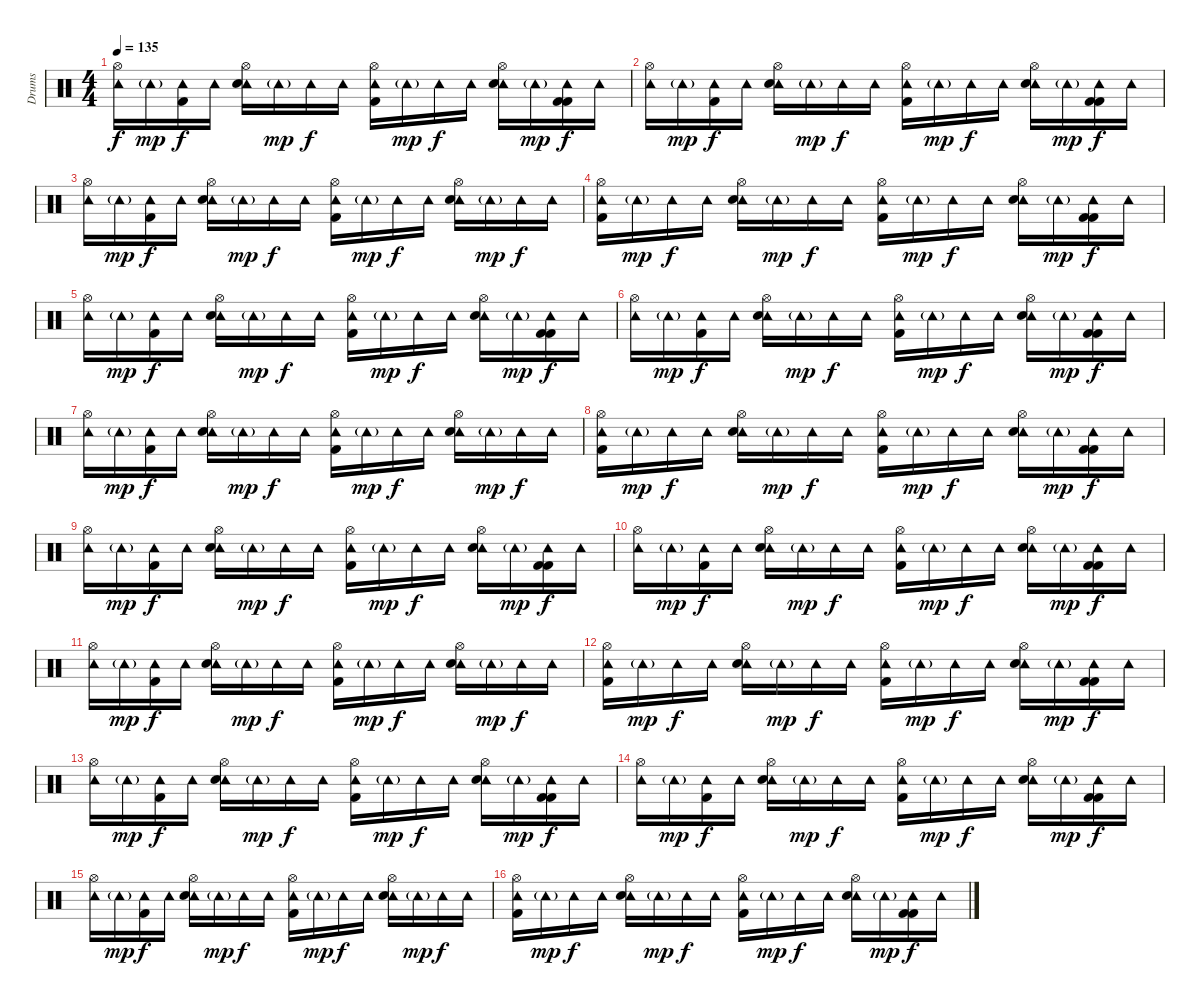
\track ("Drums" "Drums") {instrument percussion}
\staff {score}
\articulation defaults
\ts (4 4)
\tempo 135
\clef neutral
\ks c
("Hi-Hat (open)" "Tambourine (hit)").16{dy f} "Tambourine (hit)"{g}.16{dy mp} ("Tambourine (hit)" "Kick (hit) 2").16{dy f} "Tambourine (hit)".16 ("Hi-Hat (open)" "Tambourine (hit)" "Electric Snare (hit)").16 "Tambourine (hit)"{g}.16{dy mp} "Tambourine (hit)".16{dy f} "Tambourine (hit)".16 ("Hi-Hat (open)" "Tambourine (hit)" "Kick (hit) 2").16 "Tambourine (hit)"{g}.16{dy mp} "Tambourine (hit)".16{dy f} "Tambourine (hit)".16 ("Hi-Hat (open)" "Tambourine (hit)" "Electric Snare (hit)").16 "Tambourine (hit)"{g}.16{dy mp} ("Tambourine (hit)" "Kick (hit) 2" "Kick (hit) 2").16{dy f} "Tambourine (hit)".16 |
("Hi-Hat (open)" "Tambourine (hit)").16 "Tambourine (hit)"{g}.16{dy mp} ("Tambourine (hit)" "Kick (hit) 2").16{dy f} "Tambourine (hit)".16 ("Hi-Hat (open)" "Tambourine (hit)" "Electric Snare (hit)").16 "Tambourine (hit)"{g}.16{dy mp} "Tambourine (hit)".16{dy f} "Tambourine (hit)".16 ("Hi-Hat (open)" "Tambourine (hit)" "Kick (hit) 2").16 "Tambourine (hit)"{g}.16{dy mp} "Tambourine (hit)".16{dy f} "Tambourine (hit)".16 ("Hi-Hat (open)" "Tambourine (hit)" "Electric Snare (hit)").16 "Tambourine (hit)"{g}.16{dy mp} ("Tambourine (hit)" "Kick (hit) 2" "Kick (hit) 2").16{dy f} "Tambourine (hit)".16 |
("Hi-Hat (open)" "Tambourine (hit)").16 "Tambourine (hit)"{g}.16{dy mp} ("Tambourine (hit)" "Kick (hit) 2").16{dy f} "Tambourine (hit)".16 ("Hi-Hat (open)" "Tambourine (hit)" "Electric Snare (hit)").16 "Tambourine (hit)"{g}.16{dy mp} "Tambourine (hit)".16{dy f} "Tambourine (hit)".16 ("Hi-Hat (open)" "Tambourine (hit)" "Kick (hit) 2").16 "Tambourine (hit)"{g}.16{dy mp} "Tambourine (hit)".16{dy f} "Tambourine (hit)".16 ("Hi-Hat (open)" "Tambourine (hit)" "Electric Snare (hit)").16 "Tambourine (hit)"{g}.16{dy mp} "Tambourine (hit)".16{dy f} "Tambourine (hit)".16 |
("Hi-Hat (open)" "Tambourine (hit)" "Kick (hit) 2").16 "Tambourine (hit)"{g}.16{dy mp} "Tambourine (hit)".16{dy f} "Tambourine (hit)".16 ("Hi-Hat (open)" "Tambourine (hit)" "Electric Snare (hit)").16 "Tambourine (hit)"{g}.16{dy mp} "Tambourine (hit)".16{dy f} "Tambourine (hit)".16 ("Hi-Hat (open)" "Tambourine (hit)" "Kick (hit) 2").16 "Tambourine (hit)"{g}.16{dy mp} "Tambourine (hit)".16{dy f} "Tambourine (hit)".16 ("Hi-Hat (open)" "Tambourine (hit)" "Electric Snare (hit)").16 "Tambourine (hit)"{g}.16{dy mp} ("Tambourine (hit)" "Kick (hit) 2" "Kick (hit) 2").16{dy f} "Tambourine (hit)".16 |
("Hi-Hat (open)" "Tambourine (hit)").16 "Tambourine (hit)"{g}.16{dy mp} ("Tambourine (hit)" "Kick (hit) 2").16{dy f} "Tambourine (hit)".16 ("Hi-Hat (open)" "Tambourine (hit)" "Electric Snare (hit)").16 "Tambourine (hit)"{g}.16{dy mp} "Tambourine (hit)".16{dy f} "Tambourine (hit)".16 ("Hi-Hat (open)" "Tambourine (hit)" "Kick (hit) 2").16 "Tambourine (hit)"{g}.16{dy mp} "Tambourine (hit)".16{dy f} "Tambourine (hit)".16 ("Hi-Hat (open)" "Tambourine (hit)" "Electric Snare (hit)").16 "Tambourine (hit)"{g}.16{dy mp} ("Tambourine (hit)" "Kick (hit) 2" "Kick (hit) 2").16{dy f} "Tambourine (hit)".16 |
("Hi-Hat (open)" "Tambourine (hit)").16 "Tambourine (hit)"{g}.16{dy mp} ("Tambourine (hit)" "Kick (hit) 2").16{dy f} "Tambourine (hit)".16 ("Hi-Hat (open)" "Tambourine (hit)" "Electric Snare (hit)").16 "Tambourine (hit)"{g}.16{dy mp} "Tambourine (hit)".16{dy f} "Tambourine (hit)".16 ("Hi-Hat (open)" "Tambourine (hit)" "Kick (hit) 2").16 "Tambourine (hit)"{g}.16{dy mp} "Tambourine (hit)".16{dy f} "Tambourine (hit)".16 ("Hi-Hat (open)" "Tambourine (hit)" "Electric Snare (hit)").16 "Tambourine (hit)"{g}.16{dy mp} ("Tambourine (hit)" "Kick (hit) 2" "Kick (hit) 2").16{dy f} "Tambourine (hit)".16 |
("Hi-Hat (open)" "Tambourine (hit)").16 "Tambourine (hit)"{g}.16{dy mp} ("Tambourine (hit)" "Kick (hit) 2").16{dy f} "Tambourine (hit)".16 ("Hi-Hat (open)" "Tambourine (hit)" "Electric Snare (hit)").16 "Tambourine (hit)"{g}.16{dy mp} "Tambourine (hit)".16{dy f} "Tambourine (hit)".16 ("Hi-Hat (open)" "Tambourine (hit)" "Kick (hit) 2").16 "Tambourine (hit)"{g}.16{dy mp} "Tambourine (hit)".16{dy f} "Tambourine (hit)".16 ("Hi-Hat (open)" "Tambourine (hit)" "Electric Snare (hit)").16 "Tambourine (hit)"{g}.16{dy mp} "Tambourine (hit)".16{dy f} "Tambourine (hit)".16 |
("Hi-Hat (open)" "Tambourine (hit)" "Kick (hit) 2").16 "Tambourine (hit)"{g}.16{dy mp} "Tambourine (hit)".16{dy f} "Tambourine (hit)".16 ("Hi-Hat (open)" "Tambourine (hit)" "Electric Snare (hit)").16 "Tambourine (hit)"{g}.16{dy mp} "Tambourine (hit)".16{dy f} "Tambourine (hit)".16 ("Hi-Hat (open)" "Tambourine (hit)" "Kick (hit) 2").16 "Tambourine (hit)"{g}.16{dy mp} "Tambourine (hit)".16{dy f} "Tambourine (hit)".16 ("Hi-Hat (open)" "Tambourine (hit)" "Electric Snare (hit)").16 "Tambourine (hit)"{g}.16{dy mp} ("Tambourine (hit)" "Kick (hit) 2" "Kick (hit) 2").16{dy f} "Tambourine (hit)".16 |
("Hi-Hat (open)" "Tambourine (hit)").16 "Tambourine (hit)"{g}.16{dy mp} ("Tambourine (hit)" "Kick (hit) 2").16{dy f} "Tambourine (hit)".16 ("Hi-Hat (open)" "Tambourine (hit)" "Electric Snare (hit)").16 "Tambourine (hit)"{g}.16{dy mp} "Tambourine (hit)".16{dy f} "Tambourine (hit)".16 ("Hi-Hat (open)" "Tambourine (hit)" "Kick (hit) 2").16 "Tambourine (hit)"{g}.16{dy mp} "Tambourine (hit)".16{dy f} "Tambourine (hit)".16 ("Hi-Hat (open)" "Tambourine (hit)" "Electric Snare (hit)").16 "Tambourine (hit)"{g}.16{dy mp} ("Tambourine (hit)" "Kick (hit) 2" "Kick (hit) 2").16{dy f} "Tambourine (hit)".16 |
("Hi-Hat (open)" "Tambourine (hit)").16 "Tambourine (hit)"{g}.16{dy mp} ("Tambourine (hit)" "Kick (hit) 2").16{dy f} "Tambourine (hit)".16 ("Hi-Hat (open)" "Tambourine (hit)" "Electric Snare (hit)").16 "Tambourine (hit)"{g}.16{dy mp} "Tambourine (hit)".16{dy f} "Tambourine (hit)".16 ("Hi-Hat (open)" "Tambourine (hit)" "Kick (hit) 2").16 "Tambourine (hit)"{g}.16{dy mp} "Tambourine (hit)".16{dy f} "Tambourine (hit)".16 ("Hi-Hat (open)" "Tambourine (hit)" "Electric Snare (hit)").16 "Tambourine (hit)"{g}.16{dy mp} ("Tambourine (hit)" "Kick (hit) 2" "Kick (hit) 2").16{dy f} "Tambourine (hit)".16 |
("Hi-Hat (open)" "Tambourine (hit)").16 "Tambourine (hit)"{g}.16{dy mp} ("Tambourine (hit)" "Kick (hit) 2").16{dy f} "Tambourine (hit)".16 ("Hi-Hat (open)" "Tambourine (hit)" "Electric Snare (hit)").16 "Tambourine (hit)"{g}.16{dy mp} "Tambourine (hit)".16{dy f} "Tambourine (hit)".16 ("Hi-Hat (open)" "Tambourine (hit)" "Kick (hit) 2").16 "Tambourine (hit)"{g}.16{dy mp} "Tambourine (hit)".16{dy f} "Tambourine (hit)".16 ("Hi-Hat (open)" "Tambourine (hit)" "Electric Snare (hit)").16 "Tambourine (hit)"{g}.16{dy mp} "Tambourine (hit)".16{dy f} "Tambourine (hit)".16 |
("Hi-Hat (open)" "Tambourine (hit)" "Kick (hit) 2").16 "Tambourine (hit)"{g}.16{dy mp} "Tambourine (hit)".16{dy f} "Tambourine (hit)".16 ("Hi-Hat (open)" "Tambourine (hit)" "Electric Snare (hit)").16 "Tambourine (hit)"{g}.16{dy mp} "Tambourine (hit)".16{dy f} "Tambourine (hit)".16 ("Hi-Hat (open)" "Tambourine (hit)" "Kick (hit) 2").16 "Tambourine (hit)"{g}.16{dy mp} "Tambourine (hit)".16{dy f} "Tambourine (hit)".16 ("Hi-Hat (open)" "Tambourine (hit)" "Electric Snare (hit)").16 "Tambourine (hit)"{g}.16{dy mp} ("Tambourine (hit)" "Kick (hit) 2" "Kick (hit) 2").16{dy f} "Tambourine (hit)".16 |
("Hi-Hat (open)" "Tambourine (hit)").16 "Tambourine (hit)"{g}.16{dy mp} ("Tambourine (hit)" "Kick (hit) 2").16{dy f} "Tambourine (hit)".16 ("Hi-Hat (open)" "Tambourine (hit)" "Electric Snare (hit)").16 "Tambourine (hit)"{g}.16{dy mp} "Tambourine (hit)".16{dy f} "Tambourine (hit)".16 ("Hi-Hat (open)" "Tambourine (hit)" "Kick (hit) 2").16 "Tambourine (hit)"{g}.16{dy mp} "Tambourine (hit)".16{dy f} "Tambourine (hit)".16 ("Hi-Hat (open)" "Tambourine (hit)" "Electric Snare (hit)").16 "Tambourine (hit)"{g}.16{dy mp} ("Tambourine (hit)" "Kick (hit) 2" "Kick (hit) 2").16{dy f} "Tambourine (hit)".16 |
("Hi-Hat (open)" "Tambourine (hit)").16 "Tambourine (hit)"{g}.16{dy mp} ("Tambourine (hit)" "Kick (hit) 2").16{dy f} "Tambourine (hit)".16 ("Hi-Hat (open)" "Tambourine (hit)" "Electric Snare (hit)").16 "Tambourine (hit)"{g}.16{dy mp} "Tambourine (hit)".16{dy f} "Tambourine (hit)".16 ("Hi-Hat (open)" "Tambourine (hit)" "Kick (hit) 2").16 "Tambourine (hit)"{g}.16{dy mp} "Tambourine (hit)".16{dy f} "Tambourine (hit)".16 ("Hi-Hat (open)" "Tambourine (hit)" "Electric Snare (hit)").16 "Tambourine (hit)"{g}.16{dy mp} ("Tambourine (hit)" "Kick (hit) 2" "Kick (hit) 2").16{dy f} "Tambourine (hit)".16 |
("Hi-Hat (open)" "Tambourine (hit)").16 "Tambourine (hit)"{g}.16{dy mp} ("Tambourine (hit)" "Kick (hit) 2").16{dy f} "Tambourine (hit)".16 ("Hi-Hat (open)" "Tambourine (hit)" "Electric Snare (hit)").16 "Tambourine (hit)"{g}.16{dy mp} "Tambourine (hit)".16{dy f} "Tambourine (hit)".16 ("Hi-Hat (open)" "Tambourine (hit)" "Kick (hit) 2").16 "Tambourine (hit)"{g}.16{dy mp} "Tambourine (hit)".16{dy f} "Tambourine (hit)".16 ("Hi-Hat (open)" "Tambourine (hit)" "Electric Snare (hit)").16 "Tambourine (hit)"{g}.16{dy mp} "Tambourine (hit)".16{dy f} "Tambourine (hit)".16 |
("Hi-Hat (open)" "Tambourine (hit)" "Kick (hit) 2").16 "Tambourine (hit)"{g}.16{dy mp} "Tambourine (hit)".16{dy f} "Tambourine (hit)".16 ("Hi-Hat (open)" "Tambourine (hit)" "Electric Snare (hit)").16 "Tambourine (hit)"{g}.16{dy mp} "Tambourine (hit)".16{dy f} "Tambourine (hit)".16 ("Hi-Hat (open)" "Tambourine (hit)" "Kick (hit) 2").16 "Tambourine (hit)"{g}.16{dy mp} "Tambourine (hit)".16{dy f} "Tambourine (hit)".16 ("Hi-Hat (open)" "Tambourine (hit)" "Electric Snare (hit)").16 "Tambourine (hit)"{g}.16{dy mp} ("Tambourine (hit)" "Kick (hit) 2" "Kick (hit) 2").16{dy f} "Tambourine (hit)".16
